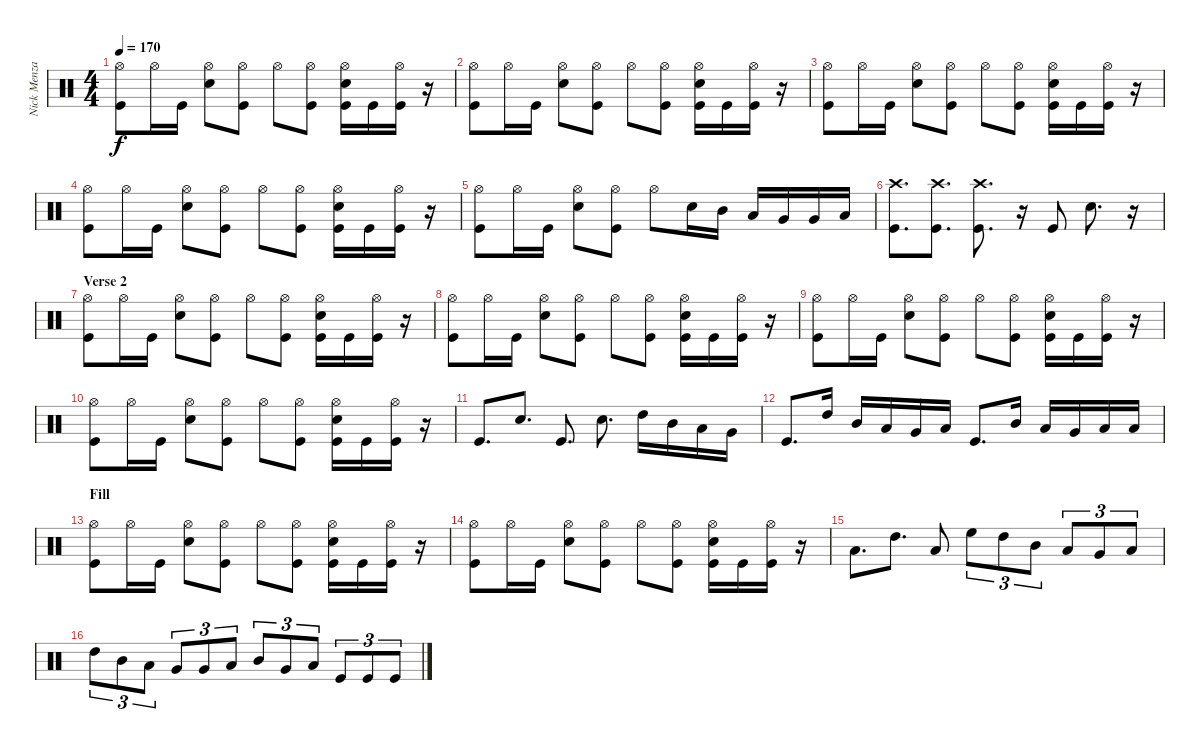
\track ("Nick Menza" "Nick Menza") {instrument percussion}
\staff {score}
\articulation defaults
\ts (4 4)
\tempo 170
\clef neutral
\ks c
("Hi-Hat (open)" "Kick (hit)").8{dy f} "Hi-Hat (open)".16 "Kick (hit)".16 ("Hi-Hat (open)" "Snare (hit) 2").8 ("Hi-Hat (open)" "Kick (hit)").8 "Hi-Hat (open)".8 ("Hi-Hat (open)" "Kick (hit)").8 ("Hi-Hat (open)" "Snare (hit) 2" "Kick (hit)").16 "Kick (hit)".16 ("Hi-Hat (open)" "Kick (hit)").16 r.16 |
("Hi-Hat (open)" "Kick (hit)").8 "Hi-Hat (open)".16 "Kick (hit)".16 ("Hi-Hat (open)" "Snare (hit) 2").8 ("Hi-Hat (open)" "Kick (hit)").8 "Hi-Hat (open)".8 ("Hi-Hat (open)" "Kick (hit)").8 ("Hi-Hat (open)" "Snare (hit) 2" "Kick (hit)").16 "Kick (hit)".16 ("Hi-Hat (open)" "Kick (hit)").16 r.16 |
("Hi-Hat (open)" "Kick (hit)").8 "Hi-Hat (open)".16 "Kick (hit)".16 ("Hi-Hat (open)" "Snare (hit) 2").8 ("Hi-Hat (open)" "Kick (hit)").8 "Hi-Hat (open)".8 ("Hi-Hat (open)" "Kick (hit)").8 ("Hi-Hat (open)" "Snare (hit) 2" "Kick (hit)").16 "Kick (hit)".16 ("Hi-Hat (open)" "Kick (hit)").16 r.16 |
("Hi-Hat (open)" "Kick (hit)").8 "Hi-Hat (open)".16 "Kick (hit)".16 ("Hi-Hat (open)" "Snare (hit) 2").8 ("Hi-Hat (open)" "Kick (hit)").8 "Hi-Hat (open)".8 ("Hi-Hat (open)" "Kick (hit)").8 ("Hi-Hat (open)" "Snare (hit) 2" "Kick (hit)").16 "Kick (hit)".16 ("Hi-Hat (open)" "Kick (hit)").16 r.16 |
("Hi-Hat (open)" "Kick (hit)").8 "Hi-Hat (open)".16 "Kick (hit)".16 ("Hi-Hat (open)" "Snare (hit) 2").8 ("Hi-Hat (open)" "Kick (hit)").8 "Hi-Hat (open)".8 "Snare (hit) 2".16 "Mid Tom (hit)".16 "Low Tom (hit)".16 "Very Low Tom (hit)".16 "Very Low Tom (hit)".16 "Low Floor Tom (hit)".16 |
("Crash high (hit)" "Kick (hit)").8{d} ("Crash high (hit)" "Kick (hit)").8{d} ("Crash high (hit)" "Kick (hit)").8{d} r.16 "Kick (hit)".8 "Snare (hit) 2".8{d} r.16 |
\section ("" "Verse 2")
("Hi-Hat (open)" "Kick (hit)").8 "Hi-Hat (open)".16 "Kick (hit)".16 ("Hi-Hat (open)" "Snare (hit) 2").8 ("Hi-Hat (open)" "Kick (hit)").8 "Hi-Hat (open)".8 ("Hi-Hat (open)" "Kick (hit)").8 ("Hi-Hat (open)" "Snare (hit) 2" "Kick (hit)").16 "Kick (hit)".16 ("Hi-Hat (open)" "Kick (hit)").16 r.16 |
("Hi-Hat (open)" "Kick (hit)").8 "Hi-Hat (open)".16 "Kick (hit)".16 ("Hi-Hat (open)" "Snare (hit) 2").8 ("Hi-Hat (open)" "Kick (hit)").8 "Hi-Hat (open)".8 ("Hi-Hat (open)" "Kick (hit)").8 ("Hi-Hat (open)" "Snare (hit) 2" "Kick (hit)").16 "Kick (hit)".16 ("Hi-Hat (open)" "Kick (hit)").16 r.16 |
("Hi-Hat (open)" "Kick (hit)").8 "Hi-Hat (open)".16 "Kick (hit)".16 ("Hi-Hat (open)" "Snare (hit) 2").8 ("Hi-Hat (open)" "Kick (hit)").8 "Hi-Hat (open)".8 ("Hi-Hat (open)" "Kick (hit)").8 ("Hi-Hat (open)" "Snare (hit) 2" "Kick (hit)").16 "Kick (hit)".16 ("Hi-Hat (open)" "Kick (hit)").16 r.16 |
("Hi-Hat (open)" "Kick (hit)").8 "Hi-Hat (open)".16 "Kick (hit)".16 ("Hi-Hat (open)" "Snare (hit) 2").8 ("Hi-Hat (open)" "Kick (hit)").8 "Hi-Hat (open)".8 ("Hi-Hat (open)" "Kick (hit)").8 ("Hi-Hat (open)" "Snare (hit) 2" "Kick (hit)").16 "Kick (hit)".16 ("Hi-Hat (open)" "Kick (hit)").16 r.16 |
"Kick (hit)".8{d} "Snare (hit) 2".8{d} "Kick (hit)".8{d} "Snare (hit) 2".8{d} "High Tom (hit)".16 "Mid Tom (hit)".16 "Low Tom (hit)".16 "Very Low Tom (hit)".16 |
"Kick (hit)".8{d} "High Tom (hit)".16 "Mid Tom (hit)".16 "Low Tom (hit)".16 "Very Low Tom (hit)".16 "Low Floor Tom (hit)".16 "Kick (hit)".8{d} "Mid Tom (hit)".16 "Low Tom (hit)".16 "Very Low Tom (hit)".16 "Low Floor Tom (hit)".16 "Low Floor Tom (hit)".16 |
\section ("" "Fill")
("Hi-Hat (open)" "Kick (hit)").8 "Hi-Hat (open)".16 "Kick (hit)".16 ("Hi-Hat (open)" "Snare (hit) 2").8 ("Hi-Hat (open)" "Kick (hit)").8 "Hi-Hat (open)".8 ("Hi-Hat (open)" "Kick (hit)").8 ("Hi-Hat (open)" "Snare (hit) 2" "Kick (hit)").16 "Kick (hit)".16 ("Hi-Hat (open)" "Kick (hit)").16 r.16 |
("Hi-Hat (open)" "Kick (hit)").8 "Hi-Hat (open)".16 "Kick (hit)".16 ("Hi-Hat (open)" "Snare (hit) 2").8 ("Hi-Hat (open)" "Kick (hit)").8 "Hi-Hat (open)".8 ("Hi-Hat (open)" "Kick (hit)").8 ("Hi-Hat (open)" "Snare (hit) 2" "Kick (hit)").16 "Kick (hit)".16 ("Hi-Hat (open)" "Kick (hit)").16 r.16 |
"Low Floor Tom (hit)".8{d} "High Tom (hit)".8{d} "Low Floor Tom (hit)".8 "High Floor Tom (hit)".8{tu (3 2)} "High Tom (hit)".8{tu (3 2)} "Mid Tom (hit)".8{tu (3 2)} "Low Tom (hit)".8{tu (3 2)} "Very Low Tom (hit)".8{tu (3 2)} "Low Floor Tom (hit)".8{tu (3 2)} |
"High Tom (hit)".8{tu (3 2)} "Mid Tom (hit)".8{tu (3 2)} "Low Tom (hit)".8{tu (3 2)} "Very Low Tom (hit)".8{tu (3 2)} "Very Low Tom (hit)".8{tu (3 2)} "Low Floor Tom (hit)".8{tu (3 2)} "Mid Tom (hit)".8{tu (3 2)} "Very Low Tom (hit)".8{tu (3 2)} "Low Floor Tom (hit)".8{tu (3 2)} "Kick (hit)".8{tu (3 2)} "Kick (hit)".8{tu (3 2)} "Kick (hit)".8{tu (3 2)}
